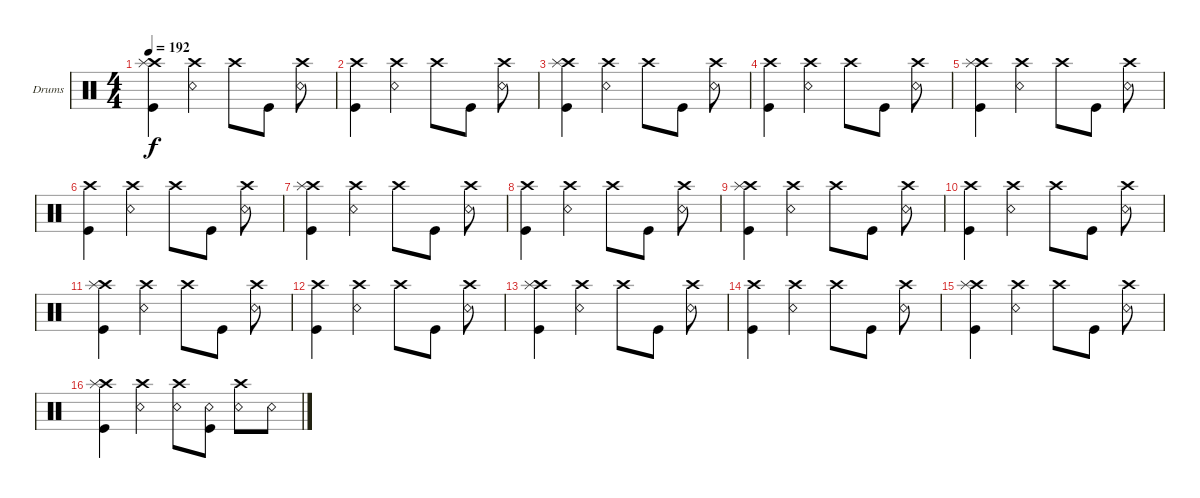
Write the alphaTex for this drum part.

\defaultSystemsLayout 4
\bracketExtendMode groupsimilarinstruments
\firstSystemTrackNameOrientation horizontal
\otherSystemsTrackNameOrientation horizontal
\track ("Drumkit" "Drums") {instrument percussion}
\staff {score}
\articulation defaults
\ts (4 4)
\tempo 192
\clef neutral
\scale
0.333333
\ks c
("Kick (hit)" "Crash high (hit)" "Splash (hit)").4{dy f} ("Snare (rim shot)" "Crash high (hit)").4 "Crash high (hit)".8 "Kick (hit)".8 ("Snare (rim shot)" "Crash high (hit)").8 |
\scale
0.333333 ("Kick (hit)" "Crash high (hit)").4 ("Snare (rim shot)" "Crash high (hit)").4 "Crash high (hit)".8 "Kick (hit)".8 ("Snare (rim shot)" "Crash high (hit)").8 |
\scale
0.333333 ("Kick (hit)" "Crash high (hit)" "Splash (hit)").4 ("Snare (rim shot)" "Crash high (hit)").4 "Crash high (hit)".8 "Kick (hit)".8 ("Snare (rim shot)" "Crash high (hit)").8 |
\scale
0.333333 ("Kick (hit)" "Crash high (hit)").4 ("Snare (rim shot)" "Crash high (hit)").4 "Crash high (hit)".8 "Kick (hit)".8 ("Snare (rim shot)" "Crash high (hit)").8 |
\scale
0.333333 ("Kick (hit)" "Crash high (hit)" "Splash (hit)").4 ("Snare (rim shot)" "Crash high (hit)").4 "Crash high (hit)".8 "Kick (hit)".8 ("Snare (rim shot)" "Crash high (hit)").8 |
\scale
0.333333 ("Kick (hit)" "Crash high (hit)").4 ("Snare (rim shot)" "Crash high (hit)").4 "Crash high (hit)".8 "Kick (hit)".8 ("Snare (rim shot)" "Crash high (hit)").8 |
\scale
0.333333 ("Kick (hit)" "Crash high (hit)" "Splash (hit)").4 ("Snare (rim shot)" "Crash high (hit)").4 "Crash high (hit)".8 "Kick (hit)".8 ("Snare (rim shot)" "Crash high (hit)").8 |
\scale
0.333333 ("Kick (hit)" "Crash high (hit)").4 ("Snare (rim shot)" "Crash high (hit)").4 "Crash high (hit)".8 "Kick (hit)".8 ("Snare (rim shot)" "Crash high (hit)").8 |
\scale
0.333333 ("Kick (hit)" "Crash high (hit)" "Splash (hit)").4 ("Snare (rim shot)" "Crash high (hit)").4 "Crash high (hit)".8 "Kick (hit)".8 ("Snare (rim shot)" "Crash high (hit)").8 |
\scale
0.333333 ("Kick (hit)" "Crash high (hit)").4 ("Snare (rim shot)" "Crash high (hit)").4 "Crash high (hit)".8 "Kick (hit)".8 ("Snare (rim shot)" "Crash high (hit)").8 |
\scale
0.333333 ("Kick (hit)" "Crash high (hit)" "Splash (hit)").4 ("Snare (rim shot)" "Crash high (hit)").4 "Crash high (hit)".8 "Kick (hit)".8 ("Snare (rim shot)" "Crash high (hit)").8 |
\scale
0.333333 ("Kick (hit)" "Crash high (hit)").4 ("Snare (rim shot)" "Crash high (hit)").4 "Crash high (hit)".8 "Kick (hit)".8 ("Snare (rim shot)" "Crash high (hit)").8 |
("Kick (hit)" "Crash high (hit)" "Splash (hit)").4 ("Snare (rim shot)" "Crash high (hit)").4 "Crash high (hit)".8 "Kick (hit)".8 ("Snare (rim shot)" "Crash high (hit)").8 |
("Kick (hit)" "Crash high (hit)").4 ("Snare (rim shot)" "Crash high (hit)").4 "Crash high (hit)".8 "Kick (hit)".8 ("Snare (rim shot)" "Crash high (hit)").8 |
("Kick (hit)" "Crash high (hit)" "Splash (hit)").4 ("Snare (rim shot)" "Crash high (hit)").4 "Crash high (hit)".8 "Kick (hit)".8 ("Snare (rim shot)" "Crash high (hit)").8 |
("Kick (hit)" "Crash high (hit)" "Splash (hit)").4 ("Snare (rim shot)" "Crash high (hit)").4 ("Crash high (hit)" "Snare (rim shot)").8 ("Kick (hit)" "Snare (rim shot)").8 ("Snare (rim shot)" "Crash high (hit)").8 "Snare (rim shot)".8
